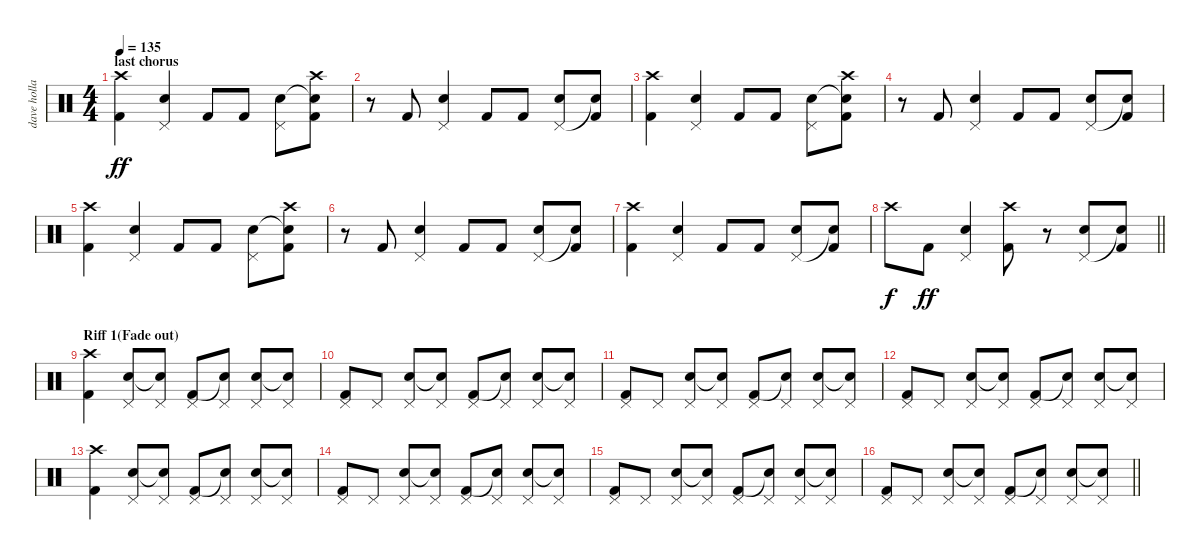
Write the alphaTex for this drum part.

\track ("dave holland" "dave holla") {instrument percussion}
\staff {score}
\articulation defaults
\ts (4 4)
\section ("" "last chorus")
\tempo 135
\clef neutral
\ks c
("Crash high (hit)" "Kick (hit) 2").4{dy ff} ("Pedal Hi-Hat (hit)" "Electric Snare (hit)").4 "Kick (hit) 2".8 "Kick (hit) 2".8 ("Pedal Hi-Hat (hit)" "Electric Snare (hit)").8 ("Crash high (hit)" "Snare (hit)"{t} "Kick (hit) 2").8 |
r.8 "Kick (hit) 2".8 ("Pedal Hi-Hat (hit)" "Electric Snare (hit)").4 "Kick (hit) 2".8 "Kick (hit) 2".8 ("Pedal Hi-Hat (hit)" "Electric Snare (hit)").8 ("Snare (hit)"{t} "Kick (hit) 2").8 |
("Crash high (hit)" "Kick (hit) 2").4 ("Pedal Hi-Hat (hit)" "Electric Snare (hit)").4 "Kick (hit) 2".8 "Kick (hit) 2".8 ("Pedal Hi-Hat (hit)" "Electric Snare (hit)").8 ("Crash high (hit)" "Snare (hit)"{t} "Kick (hit) 2").8 |
r.8 "Kick (hit) 2".8 ("Pedal Hi-Hat (hit)" "Electric Snare (hit)").4 "Kick (hit) 2".8 "Kick (hit) 2".8 ("Pedal Hi-Hat (hit)" "Electric Snare (hit)").8 ("Snare (hit)"{t} "Kick (hit) 2").8 |
("Crash high (hit)" "Kick (hit) 2").4 ("Pedal Hi-Hat (hit)" "Electric Snare (hit)").4 "Kick (hit) 2".8 "Kick (hit) 2".8 ("Pedal Hi-Hat (hit)" "Electric Snare (hit)").8 ("Crash high (hit)" "Snare (hit)"{t} "Kick (hit) 2").8 |
r.8 "Kick (hit) 2".8 ("Pedal Hi-Hat (hit)" "Electric Snare (hit)").4 "Kick (hit) 2".8 "Kick (hit) 2".8 ("Pedal Hi-Hat (hit)" "Electric Snare (hit)").8 ("Snare (hit)"{t} "Kick (hit) 2").8 |
("Crash high (hit)" "Kick (hit) 2").4 ("Pedal Hi-Hat (hit)" "Electric Snare (hit)").4 "Kick (hit) 2".8 "Kick (hit) 2".8 ("Pedal Hi-Hat (hit)" "Electric Snare (hit)").8 ("Snare (hit)"{t} "Kick (hit) 2").8 |
\barLineRight lightlight "Crash high (hit)".8{dy f} "Kick (hit) 2".8{dy ff}
("Pedal Hi-Hat (hit)" "Electric Snare (hit)").4 ("Crash high (hit)" "Kick (hit) 2").8 r.8 ("Pedal Hi-Hat (hit)" "Electric Snare (hit)").8 ("Snare (hit)"{t} "Kick (hit) 2").8 |
\section ("" "Riff 1(Fade out)")
("Crash high (hit)" "Kick (hit) 2").4 ("Pedal Hi-Hat (hit)" "Electric Snare (hit)").8 ("Pedal Hi-Hat (hit)" "Electric Snare (hit)"{t}).8 ("Pedal Hi-Hat (hit)" "Kick (hit) 2").8 ("Pedal Hi-Hat (hit)" "Snare (hit)"{t}).8 ("Pedal Hi-Hat (hit)" "Electric Snare (hit)").8 ("Pedal Hi-Hat (hit)" "Snare (hit)"{t}).8 |
("Pedal Hi-Hat (hit)" "Kick (hit) 2").8 "Pedal Hi-Hat (hit)".8 ("Pedal Hi-Hat (hit)" "Electric Snare (hit)").8 ("Pedal Hi-Hat (hit)" "Electric Snare (hit)"{t}).8 ("Pedal Hi-Hat (hit)" "Kick (hit) 2").8 ("Pedal Hi-Hat (hit)" "Snare (hit)"{t}).8 ("Pedal Hi-Hat (hit)" "Electric Snare (hit)").8 ("Pedal Hi-Hat (hit)" "Snare (hit)"{t}).8 |
("Pedal Hi-Hat (hit)" "Kick (hit) 2").8 "Pedal Hi-Hat (hit)".8 ("Pedal Hi-Hat (hit)" "Electric Snare (hit)").8 ("Pedal Hi-Hat (hit)" "Electric Snare (hit)"{t}).8 ("Pedal Hi-Hat (hit)" "Kick (hit) 2").8 ("Pedal Hi-Hat (hit)" "Snare (hit)"{t}).8 ("Pedal Hi-Hat (hit)" "Electric Snare (hit)").8 ("Pedal Hi-Hat (hit)" "Snare (hit)"{t}).8 |
("Pedal Hi-Hat (hit)" "Kick (hit) 2").8 "Pedal Hi-Hat (hit)".8 ("Pedal Hi-Hat (hit)" "Electric Snare (hit)").8 ("Pedal Hi-Hat (hit)" "Electric Snare (hit)"{t}).8 ("Pedal Hi-Hat (hit)" "Kick (hit) 2").8 ("Pedal Hi-Hat (hit)" "Snare (hit)"{t}).8 ("Pedal Hi-Hat (hit)" "Electric Snare (hit)").8 ("Pedal Hi-Hat (hit)" "Snare (hit)"{t}).8 |
("Crash high (hit)" "Kick (hit) 2").4 ("Pedal Hi-Hat (hit)" "Electric Snare (hit)").8 ("Pedal Hi-Hat (hit)" "Electric Snare (hit)"{t}).8 ("Pedal Hi-Hat (hit)" "Kick (hit) 2").8 ("Pedal Hi-Hat (hit)" "Snare (hit)"{t}).8 ("Pedal Hi-Hat (hit)" "Electric Snare (hit)").8 ("Pedal Hi-Hat (hit)" "Snare (hit)"{t}).8 |
("Pedal Hi-Hat (hit)" "Kick (hit) 2").8 "Pedal Hi-Hat (hit)".8 ("Pedal Hi-Hat (hit)" "Electric Snare (hit)").8 ("Pedal Hi-Hat (hit)" "Electric Snare (hit)"{t}).8 ("Pedal Hi-Hat (hit)" "Kick (hit) 2").8 ("Pedal Hi-Hat (hit)" "Snare (hit)"{t}).8 ("Pedal Hi-Hat (hit)" "Electric Snare (hit)").8 ("Pedal Hi-Hat (hit)" "Snare (hit)"{t}).8 |
("Pedal Hi-Hat (hit)" "Kick (hit) 2").8 "Pedal Hi-Hat (hit)".8 ("Pedal Hi-Hat (hit)" "Electric Snare (hit)").8 ("Pedal Hi-Hat (hit)" "Electric Snare (hit)"{t}).8 ("Pedal Hi-Hat (hit)" "Kick (hit) 2").8 ("Pedal Hi-Hat (hit)" "Snare (hit)"{t}).8 ("Pedal Hi-Hat (hit)" "Electric Snare (hit)").8 ("Pedal Hi-Hat (hit)" "Snare (hit)"{t}).8 |
\barLineRight lightlight
("Pedal Hi-Hat (hit)" "Kick (hit) 2").8 "Pedal Hi-Hat (hit)".8 ("Pedal Hi-Hat (hit)" "Electric Snare (hit)").8 ("Pedal Hi-Hat (hit)" "Electric Snare (hit)"{t}).8 ("Pedal Hi-Hat (hit)" "Kick (hit) 2").8 ("Pedal Hi-Hat (hit)" "Snare (hit)"{t}).8 ("Pedal Hi-Hat (hit)" "Electric Snare (hit)").8 ("Pedal Hi-Hat (hit)" "Snare (hit)"{t}).8
